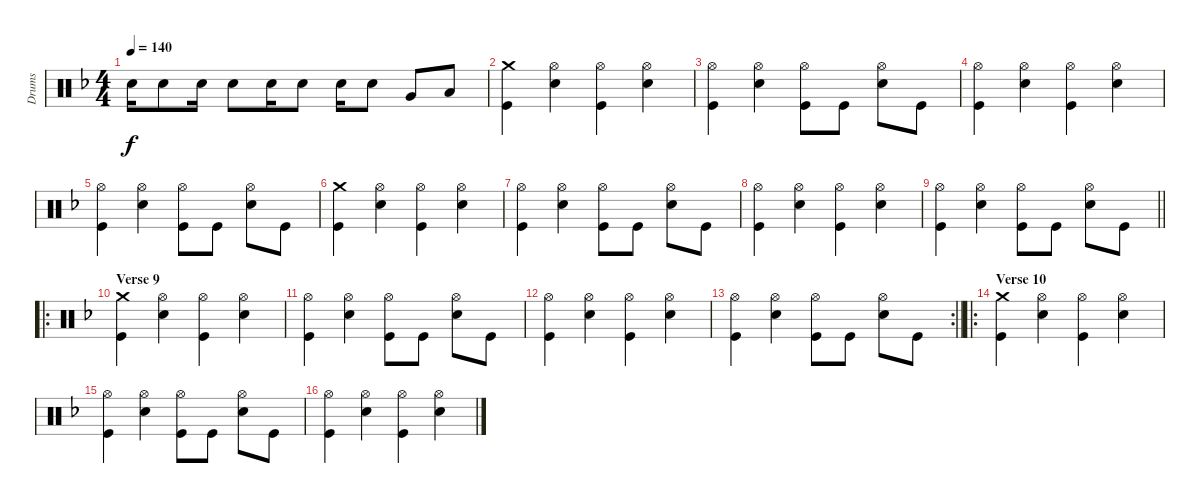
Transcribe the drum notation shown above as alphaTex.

\track ("Drums" "Drums") {instrument percussion}
\staff {score}
\articulation defaults
\ts (4 4)
\tempo 140
\clef neutral
\ks f "Snare (hit) 2".16{dy f} "Snare (hit) 2".8 "Snare (hit) 2".16 "Snare (hit) 2".8 "Snare (hit) 2".16 "Snare (hit) 2".8 "Snare (hit) 2".16 "Snare (hit) 2".8 "Very Low Tom (hit)".8 "Low Floor Tom (hit)".8
|
("Crash medium (hit)" "Kick (hit)").4 ("Hi-Hat (open)" "Snare (hit) 2").4 ("Hi-Hat (open)" "Kick (hit)").4 ("Hi-Hat (open)" "Snare (hit) 2").4 |
("Hi-Hat (open)" "Kick (hit)").4 ("Hi-Hat (open)" "Snare (hit) 2").4 ("Hi-Hat (open)" "Kick (hit)").8 "Kick (hit)".8 ("Hi-Hat (open)" "Snare (hit) 2").8 "Kick (hit)".8 |
("Hi-Hat (open)" "Kick (hit)").4 ("Hi-Hat (open)" "Snare (hit) 2").4 ("Hi-Hat (open)" "Kick (hit)").4 ("Hi-Hat (open)" "Snare (hit) 2").4 |
("Hi-Hat (open)" "Kick (hit)").4 ("Hi-Hat (open)" "Snare (hit) 2").4 ("Hi-Hat (open)" "Kick (hit)").8 "Kick (hit)".8 ("Hi-Hat (open)" "Snare (hit) 2").8 "Kick (hit)".8 |
("Crash medium (hit)" "Kick (hit)").4 ("Hi-Hat (open)" "Snare (hit) 2").4 ("Hi-Hat (open)" "Kick (hit)").4 ("Hi-Hat (open)" "Snare (hit) 2").4 |
("Hi-Hat (open)" "Kick (hit)").4 ("Hi-Hat (open)" "Snare (hit) 2").4 ("Hi-Hat (open)" "Kick (hit)").8 "Kick (hit)".8 ("Hi-Hat (open)" "Snare (hit) 2").8 "Kick (hit)".8 |
("Hi-Hat (open)" "Kick (hit)").4 ("Hi-Hat (open)" "Snare (hit) 2").4 ("Hi-Hat (open)" "Kick (hit)").4 ("Hi-Hat (open)" "Snare (hit) 2").4 |
\barLineRight lightlight
("Hi-Hat (open)" "Kick (hit)").4 ("Hi-Hat (open)" "Snare (hit) 2").4 ("Hi-Hat (open)" "Kick (hit)").8 "Kick (hit)".8 ("Hi-Hat (open)" "Snare (hit) 2").8 "Kick (hit)".8 |
\ro
\section ("" "Verse 9")
("Crash medium (hit)" "Kick (hit)").4 ("Hi-Hat (open)" "Snare (hit) 2").4 ("Hi-Hat (open)" "Kick (hit)").4 ("Hi-Hat (open)" "Snare (hit) 2").4 |
("Hi-Hat (open)" "Kick (hit)").4 ("Hi-Hat (open)" "Snare (hit) 2").4 ("Hi-Hat (open)" "Kick (hit)").8 "Kick (hit)".8 ("Hi-Hat (open)" "Snare (hit) 2").8 "Kick (hit)".8 |
("Hi-Hat (open)" "Kick (hit)").4 ("Hi-Hat (open)" "Snare (hit) 2").4 ("Hi-Hat (open)" "Kick (hit)").4 ("Hi-Hat (open)" "Snare (hit) 2").4 |
\rc 2
\barLineRight lightlight
("Hi-Hat (open)" "Kick (hit)").4 ("Hi-Hat (open)" "Snare (hit) 2").4 ("Hi-Hat (open)" "Kick (hit)").8 "Kick (hit)".8 ("Hi-Hat (open)" "Snare (hit) 2").8 "Kick (hit)".8 |
\ro
\section ("" "Verse 10")
("Crash medium (hit)" "Kick (hit)").4 ("Hi-Hat (open)" "Snare (hit) 2").4 ("Hi-Hat (open)" "Kick (hit)").4 ("Hi-Hat (open)" "Snare (hit) 2").4 |
("Hi-Hat (open)" "Kick (hit)").4 ("Hi-Hat (open)" "Snare (hit) 2").4 ("Hi-Hat (open)" "Kick (hit)").8 "Kick (hit)".8 ("Hi-Hat (open)" "Snare (hit) 2").8 "Kick (hit)".8 |
("Hi-Hat (open)" "Kick (hit)").4 ("Hi-Hat (open)" "Snare (hit) 2").4 ("Hi-Hat (open)" "Kick (hit)").4 ("Hi-Hat (open)" "Snare (hit) 2").4
